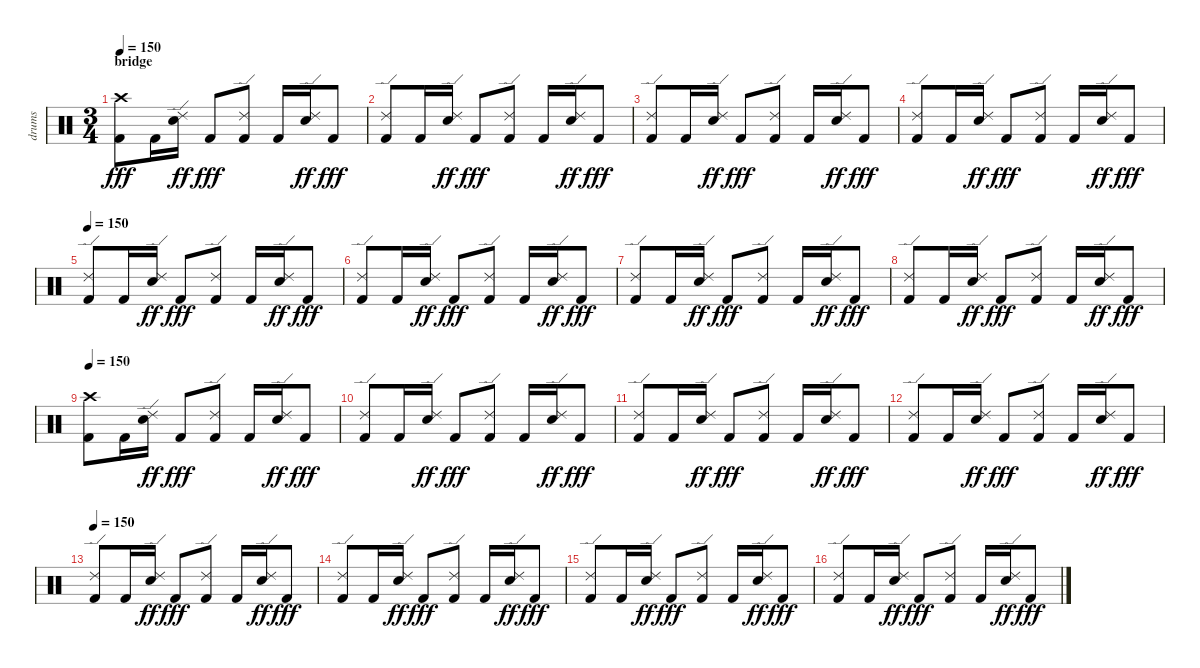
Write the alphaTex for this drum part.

\track ("drums" "drums") {instrument percussion}
\staff {score}
\articulation defaults
\ts (3 4)
\section ("" "bridge")
\tempo 150
\clef neutral
\ks c
("Crash high (hit)" "Kick (hit) 2").8{dy fff} "Kick (hit) 2".16 ("Ride (edge) 2" "Snare (hit) 2").16{dy ff} "Kick (hit) 2".8{dy fff} ("Ride (edge) 2" "Kick (hit) 2").8 "Kick (hit) 2".16 ("Ride (edge) 2" "Snare (hit) 2").16{dy ff} "Kick (hit) 2".8{dy fff} |
("Ride (edge) 2" "Kick (hit) 2").8 "Kick (hit) 2".16 ("Ride (edge) 2" "Snare (hit) 2").16{dy ff} "Kick (hit) 2".8{dy fff} ("Ride (edge) 2" "Kick (hit) 2").8 "Kick (hit) 2".16 ("Ride (edge) 2" "Snare (hit) 2").16{dy ff} "Kick (hit) 2".8{dy fff} |
("Ride (edge) 2" "Kick (hit) 2").8 "Kick (hit) 2".16 ("Ride (edge) 2" "Snare (hit) 2").16{dy ff} "Kick (hit) 2".8{dy fff} ("Ride (edge) 2" "Kick (hit) 2").8 "Kick (hit) 2".16 ("Ride (edge) 2" "Snare (hit) 2").16{dy ff} "Kick (hit) 2".8{dy fff} |
("Ride (edge) 2" "Kick (hit) 2").8 "Kick (hit) 2".16 ("Ride (edge) 2" "Snare (hit) 2").16{dy ff} "Kick (hit) 2".8{dy fff} ("Ride (edge) 2" "Kick (hit) 2").8 "Kick (hit) 2".16 ("Ride (edge) 2" "Snare (hit) 2").16{dy ff} "Kick (hit) 2".8{dy fff} |
\tempo 150
("Ride (edge) 2" "Kick (hit) 2").8 "Kick (hit) 2".16 ("Ride (edge) 2" "Snare (hit) 2").16{dy ff} "Kick (hit) 2".8{dy fff} ("Ride (edge) 2" "Kick (hit) 2").8 "Kick (hit) 2".16 ("Ride (edge) 2" "Snare (hit) 2").16{dy ff} "Kick (hit) 2".8{dy fff} |
("Ride (edge) 2" "Kick (hit) 2").8 "Kick (hit) 2".16 ("Ride (edge) 2" "Snare (hit) 2").16{dy ff} "Kick (hit) 2".8{dy fff} ("Ride (edge) 2" "Kick (hit) 2").8 "Kick (hit) 2".16 ("Ride (edge) 2" "Snare (hit) 2").16{dy ff} "Kick (hit) 2".8{dy fff} |
("Ride (edge) 2" "Kick (hit) 2").8 "Kick (hit) 2".16 ("Ride (edge) 2" "Snare (hit) 2").16{dy ff} "Kick (hit) 2".8{dy fff} ("Ride (edge) 2" "Kick (hit) 2").8 "Kick (hit) 2".16 ("Ride (edge) 2" "Snare (hit) 2").16{dy ff} "Kick (hit) 2".8{dy fff} |
("Ride (edge) 2" "Kick (hit) 2").8 "Kick (hit) 2".16 ("Ride (edge) 2" "Snare (hit) 2").16{dy ff} "Kick (hit) 2".8{dy fff} ("Ride (edge) 2" "Kick (hit) 2").8 "Kick (hit) 2".16 ("Ride (edge) 2" "Snare (hit) 2").16{dy ff} "Kick (hit) 2".8{dy fff} |
\tempo 150
("Crash high (hit)" "Kick (hit) 2").8 "Kick (hit) 2".16 ("Ride (edge) 2" "Snare (hit) 2").16{dy ff} "Kick (hit) 2".8{dy fff} ("Ride (edge) 2" "Kick (hit) 2").8 "Kick (hit) 2".16 ("Ride (edge) 2" "Snare (hit) 2").16{dy ff} "Kick (hit) 2".8{dy fff} |
("Ride (edge) 2" "Kick (hit) 2").8 "Kick (hit) 2".16 ("Ride (edge) 2" "Snare (hit) 2").16{dy ff} "Kick (hit) 2".8{dy fff} ("Ride (edge) 2" "Kick (hit) 2").8 "Kick (hit) 2".16 ("Ride (edge) 2" "Snare (hit) 2").16{dy ff} "Kick (hit) 2".8{dy fff} |
("Ride (edge) 2" "Kick (hit) 2").8 "Kick (hit) 2".16 ("Ride (edge) 2" "Snare (hit) 2").16{dy ff} "Kick (hit) 2".8{dy fff} ("Ride (edge) 2" "Kick (hit) 2").8 "Kick (hit) 2".16 ("Ride (edge) 2" "Snare (hit) 2").16{dy ff} "Kick (hit) 2".8{dy fff} |
("Ride (edge) 2" "Kick (hit) 2").8 "Kick (hit) 2".16 ("Ride (edge) 2" "Snare (hit) 2").16{dy ff} "Kick (hit) 2".8{dy fff} ("Ride (edge) 2" "Kick (hit) 2").8 "Kick (hit) 2".16 ("Ride (edge) 2" "Snare (hit) 2").16{dy ff} "Kick (hit) 2".8{dy fff} |
\tempo 150
("Ride (edge) 2" "Kick (hit) 2").8 "Kick (hit) 2".16 ("Ride (edge) 2" "Snare (hit) 2").16{dy ff} "Kick (hit) 2".8{dy fff} ("Ride (edge) 2" "Kick (hit) 2").8 "Kick (hit) 2".16 ("Ride (edge) 2" "Snare (hit) 2").16{dy ff} "Kick (hit) 2".8{dy fff} |
("Ride (edge) 2" "Kick (hit) 2").8 "Kick (hit) 2".16 ("Ride (edge) 2" "Snare (hit) 2").16{dy ff} "Kick (hit) 2".8{dy fff} ("Ride (edge) 2" "Kick (hit) 2").8 "Kick (hit) 2".16 ("Ride (edge) 2" "Snare (hit) 2").16{dy ff} "Kick (hit) 2".8{dy fff} |
("Ride (edge) 2" "Kick (hit) 2").8 "Kick (hit) 2".16 ("Ride (edge) 2" "Snare (hit) 2").16{dy ff} "Kick (hit) 2".8{dy fff} ("Ride (edge) 2" "Kick (hit) 2").8 "Kick (hit) 2".16 ("Ride (edge) 2" "Snare (hit) 2").16{dy ff} "Kick (hit) 2".8{dy fff} |
("Ride (edge) 2" "Kick (hit) 2").8 "Kick (hit) 2".16 ("Ride (edge) 2" "Snare (hit) 2").16{dy ff} "Kick (hit) 2".8{dy fff} ("Ride (edge) 2" "Kick (hit) 2").8 "Kick (hit) 2".16 ("Ride (edge) 2" "Snare (hit) 2").16{dy ff} "Kick (hit) 2".8{dy fff}
